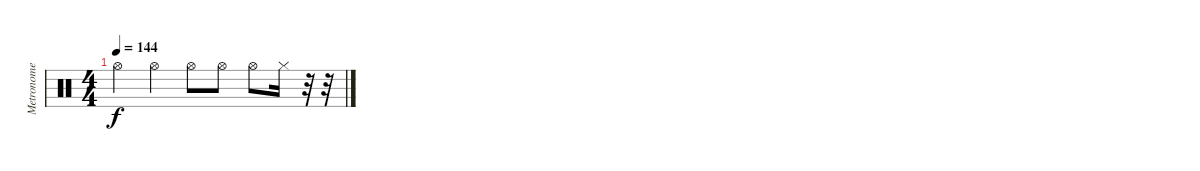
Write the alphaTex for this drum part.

\track ("Metronome" "Metronome") {instrument percussion}
\staff {score}
\articulation defaults
\ts (4 4)
\tempo 144
\clef neutral
\ks c "Hi-Hat (open)".4{dy f} "Hi-Hat (open)".4 "Hi-Hat (open)".8 "Hi-Hat (open)".8 "Hi-Hat (open)".8 "Hi-Hat (closed)".16
r.32 r.32
